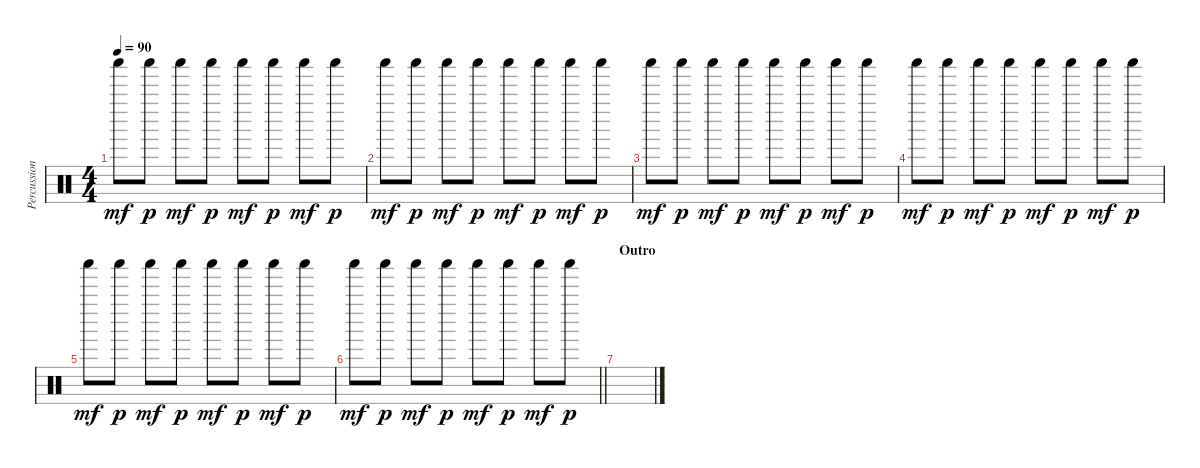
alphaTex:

\track ("Percussion" "Percussion") {instrument percussion}
\staff {score}
\articulation defaults
\ts (4 4)
\tempo 90
\clef neutral
\ks c "Shaker (hit)".8{dy mf} "Shaker (hit)".8{dy p} "Shaker (hit)".8{dy mf} "Shaker (hit)".8{dy p} "Shaker (hit)".8{dy mf} "Shaker (hit)".8{dy p} "Shaker (hit)".8{dy mf} "Shaker (hit)".8{dy p}
|
"Shaker (hit)".8{dy mf} "Shaker (hit)".8{dy p} "Shaker (hit)".8{dy mf} "Shaker (hit)".8{dy p} "Shaker (hit)".8{dy mf} "Shaker (hit)".8{dy p} "Shaker (hit)".8{dy mf} "Shaker (hit)".8{dy p} |
"Shaker (hit)".8{dy mf} "Shaker (hit)".8{dy p} "Shaker (hit)".8{dy mf} "Shaker (hit)".8{dy p} "Shaker (hit)".8{dy mf} "Shaker (hit)".8{dy p} "Shaker (hit)".8{dy mf} "Shaker (hit)".8{dy p} |
"Shaker (hit)".8{dy mf} "Shaker (hit)".8{dy p} "Shaker (hit)".8{dy mf} "Shaker (hit)".8{dy p} "Shaker (hit)".8{dy mf} "Shaker (hit)".8{dy p} "Shaker (hit)".8{dy mf} "Shaker (hit)".8{dy p} |
"Shaker (hit)".8{dy mf} "Shaker (hit)".8{dy p} "Shaker (hit)".8{dy mf} "Shaker (hit)".8{dy p} "Shaker (hit)".8{dy mf} "Shaker (hit)".8{dy p} "Shaker (hit)".8{dy mf} "Shaker (hit)".8{dy p} |
\barLineRight lightlight "Shaker (hit)".8{dy mf} "Shaker (hit)".8{dy p} "Shaker (hit)".8{dy mf} "Shaker (hit)".8{dy p} "Shaker (hit)".8{dy mf} "Shaker (hit)".8{dy p} "Shaker (hit)".8{dy mf} "Shaker (hit)".8{dy p}
|
\section ("" "Outro")
